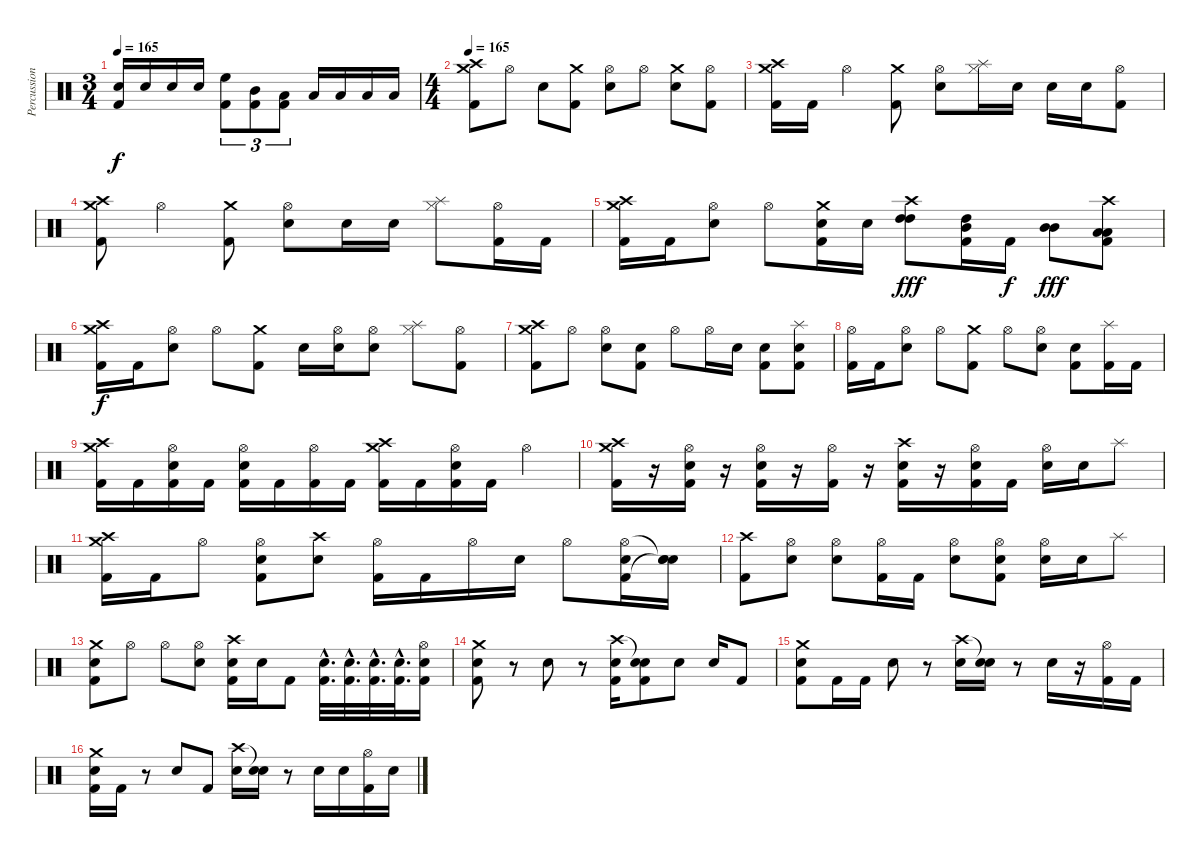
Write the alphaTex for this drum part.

\track ("Percussion" "Percussion") {instrument percussion}
\staff {score}
\articulation defaults
\ts (3 4)
\tempo 165
\clef neutral
\ks c
("Electric Snare (hit)" "Kick (hit) 2").16{dy f} "Electric Snare (hit)".16 "Electric Snare (hit)".16 "Electric Snare (hit)".16 ("High Floor Tom (hit)" "Kick (hit) 2").8{tu (3 2)} ("Mid Tom (hit)" "Kick (hit) 2").8{tu (3 2)} ("Low Tom (hit)" "Kick (hit) 2").8{tu (3 2)} "Low Tom (hit)".16 "Low Tom (hit)".16 "Low Tom (hit)".16 "Low Tom (hit)".16 |
\ts (4 4)
\tempo 165
("Crash medium (hit)" "Crash high (hit)" "Kick (hit) 2").8 "Hi-Hat (open)".8 "Electric Snare (hit)".8 ("Crash medium (hit)" "Kick (hit) 2").8 ("Hi-Hat (open)" "Electric Snare (hit)").8 "Hi-Hat (open)".8 ("Crash medium (hit)" "Electric Snare (hit)").8 ("Hi-Hat (open)" "Kick (hit) 2").8 |
("Crash medium (hit)" "Crash high (hit)" "Kick (hit) 2").16 "Kick (hit) 2".16 "Hi-Hat (open)".4 ("Crash medium (hit)" "Kick (hit) 2").8 ("Hi-Hat (open)" "Electric Snare (hit)").8 ("Splash (hit)" "Hi-Hat (closed)").16 "Electric Snare (hit)".16 "Electric Snare (hit)".16 "Electric Snare (hit)".16 ("Hi-Hat (open)" "Kick (hit) 2").8 |
("Crash medium (hit)" "Crash high (hit)" "Kick (hit) 2").8 "Hi-Hat (open)".4 ("Crash medium (hit)" "Kick (hit) 2").8 ("Hi-Hat (open)" "Electric Snare (hit)").8 "Electric Snare (hit)".16 "Electric Snare (hit)".16 ("Splash (hit)" "Hi-Hat (closed)").8 ("Hi-Hat (open)" "Kick (hit) 2").16 "Kick (hit) 2".16 |
("Crash medium (hit)" "Crash high (hit)" "Kick (hit) 2").16 "Kick (hit) 2".16 ("Hi-Hat (open)" "Electric Snare (hit)").8 "Hi-Hat (open)".8 ("Crash medium (hit)" "Electric Snare (hit)" "Kick (hit) 2").16 "Electric Snare (hit)".16 ("Crash high (hit)" "High Tom (hit)" "High Tom (hit)").8{dy fff} ("High Tom (hit)" "Mid Tom (hit)" "Kick (hit) 2").16 "Kick (hit) 2".16{dy f} ("Mid Tom (hit)" "Mid Tom (hit)").8{dy fff} ("Crash high (hit)" "Low Tom (hit)" "Low Tom (hit)" "Kick (hit) 2").8 |
("Crash medium (hit)" "Crash high (hit)" "Kick (hit) 2").16{dy f} "Kick (hit) 2".16 ("Hi-Hat (open)" "Electric Snare (hit)").8 "Hi-Hat (open)".8 ("Crash medium (hit)" "Kick (hit) 2").8 "Electric Snare (hit)".16 ("Hi-Hat (open)" "Electric Snare (hit)").16 ("Hi-Hat (open)" "Electric Snare (hit)").8 ("Splash (hit)" "Hi-Hat (closed)").8 ("Hi-Hat (open)" "Kick (hit) 2").8 |
("Crash medium (hit)" "Crash high (hit)" "Kick (hit) 2").8 "Hi-Hat (open)".8 ("Hi-Hat (open)" "Electric Snare (hit)").8 ("Electric Snare (hit)" "Kick (hit) 2").8 "Hi-Hat (open)".8 "Hi-Hat (open)".16 "Electric Snare (hit)".16 ("Electric Snare (hit)" "Kick (hit) 2").8 ("Splash (hit)" "Electric Snare (hit)" "Kick (hit) 2").8 |
("Hi-Hat (open)" "Kick (hit) 2").16 "Kick (hit) 2".16 ("Hi-Hat (open)" "Electric Snare (hit)").8 "Hi-Hat (open)".8 ("Crash medium (hit)" "Kick (hit) 2").8 "Hi-Hat (open)".8 ("Hi-Hat (open)" "Electric Snare (hit)").8 ("Electric Snare (hit)" "Kick (hit) 2").8 ("Splash (hit)" "Kick (hit) 2").16 "Kick (hit) 2".16 |
("Crash medium (hit)" "Crash high (hit)" "Kick (hit) 2").16 "Kick (hit) 2".16 ("Hi-Hat (open)" "Electric Snare (hit)" "Kick (hit) 2").16 "Kick (hit) 2".16 ("Hi-Hat (open)" "Electric Snare (hit)" "Kick (hit) 2").16 "Kick (hit) 2".16 ("Hi-Hat (open)" "Kick (hit) 2").16 "Kick (hit) 2".16 ("Crash medium (hit)" "Crash high (hit)" "Kick (hit) 2").16 "Kick (hit) 2".16 ("Hi-Hat (open)" "Electric Snare (hit)" "Kick (hit) 2").16 "Kick (hit) 2".16 "Hi-Hat (open)".4 |
("Crash medium (hit)" "Crash high (hit)" "Kick (hit) 2").16 r.16 ("Hi-Hat (open)" "Electric Snare (hit)" "Kick (hit) 2").16 r.16 ("Hi-Hat (open)" "Electric Snare (hit)" "Kick (hit) 2").16 r.16 ("Hi-Hat (open)" "Kick (hit) 2").16 r.16 ("Crash high (hit)" "Electric Snare (hit)" "Kick (hit) 2").16 r.16 ("Hi-Hat (open)" "Electric Snare (hit)" "Kick (hit) 2").16 "Kick (hit) 2".16 ("Hi-Hat (open)" "Electric Snare (hit)").16 "Electric Snare (hit)".16 "Splash (hit)".8 |
("Crash medium (hit)" "Crash high (hit)" "Kick (hit) 2").16 "Kick (hit) 2".16 "Hi-Hat (open)".8 ("Hi-Hat (open)" "Electric Snare (hit)" "Kick (hit) 2").8 ("Crash high (hit)" "Electric Snare (hit)").8 ("Hi-Hat (open)" "Kick (hit) 2").16 "Kick (hit) 2".16 "Hi-Hat (open)".16 "Electric Snare (hit)".16 "Hi-Hat (open)".8 ("Hi-Hat (open)" "Electric Snare (hit)" "Kick (hit) 2").16 ("Snare (hit)"{t} "Electric Snare (hit)" "Snare (hit)"{t}).16 |
("Crash high (hit)" "Kick (hit) 2").8 ("Hi-Hat (open)" "Electric Snare (hit)").8 ("Hi-Hat (open)" "Electric Snare (hit)").8 ("Hi-Hat (open)" "Kick (hit) 2").16 "Kick (hit) 2".16 ("Hi-Hat (open)" "Electric Snare (hit)").8 ("Hi-Hat (open)" "Electric Snare (hit)" "Kick (hit) 2").8 ("Hi-Hat (open)" "Electric Snare (hit)").16 "Electric Snare (hit)".16 "Splash (hit)".8 |
("Crash medium (hit)" "Electric Snare (hit)" "Kick (hit) 2").8 "Hi-Hat (open)".8 "Hi-Hat (open)".8 ("Hi-Hat (open)" "Electric Snare (hit)").8 ("Crash high (hit)" "Electric Snare (hit)" "Kick (hit) 2").16 "Electric Snare (hit)".16 "Kick (hit) 2".8 ("Electric Snare (hit)"{hac} "Kick (hit) 2"{hac}).32{d} ("Electric Snare (hit)"{hac} "Kick (hit) 2"{hac}).32{d} ("Electric Snare (hit)"{hac} "Kick (hit) 2"{hac}).32{d} ("Electric Snare (hit)"{hac} "Kick (hit) 2"{hac}).32{d} ("Hi-Hat (open)" "Electric Snare (hit)" "Kick (hit) 2").16 |
("Crash medium (hit)" "Electric Snare (hit)" "Kick (hit) 2").8 r.8 "Electric Snare (hit)".8 r.8 ("Crash high (hit)" "Electric Snare (hit)" "Kick (hit) 2").16 ("Snare (hit)"{t} "Electric Snare (hit)" "Kick (hit) 2").8 "Electric Snare (hit)".8 "Electric Snare (hit)".16 "Kick (hit) 2".8 |
("Crash medium (hit)" "Electric Snare (hit)" "Kick (hit) 2").8 "Kick (hit) 2".16 "Kick (hit) 2".16 "Electric Snare (hit)".8 r.8 ("Crash high (hit)" "Electric Snare (hit)").16 ("Snare (hit)"{t} "Electric Snare (hit)").16 r.8 "Electric Snare (hit)".16 r.16 ("Hi-Hat (open)" "Kick (hit) 2").16 "Kick (hit) 2".16 |
("Crash medium (hit)" "Electric Snare (hit)" "Kick (hit) 2").16 "Kick (hit) 2".16 r.8 "Electric Snare (hit)".8 "Kick (hit) 2".8 ("Crash high (hit)" "Electric Snare (hit)").16 ("Snare (hit)"{t} "Electric Snare (hit)").16 r.8 "Electric Snare (hit)".16 "Electric Snare (hit)".16 ("Hi-Hat (open)" "Kick (hit) 2").16 "Electric Snare (hit)".16
